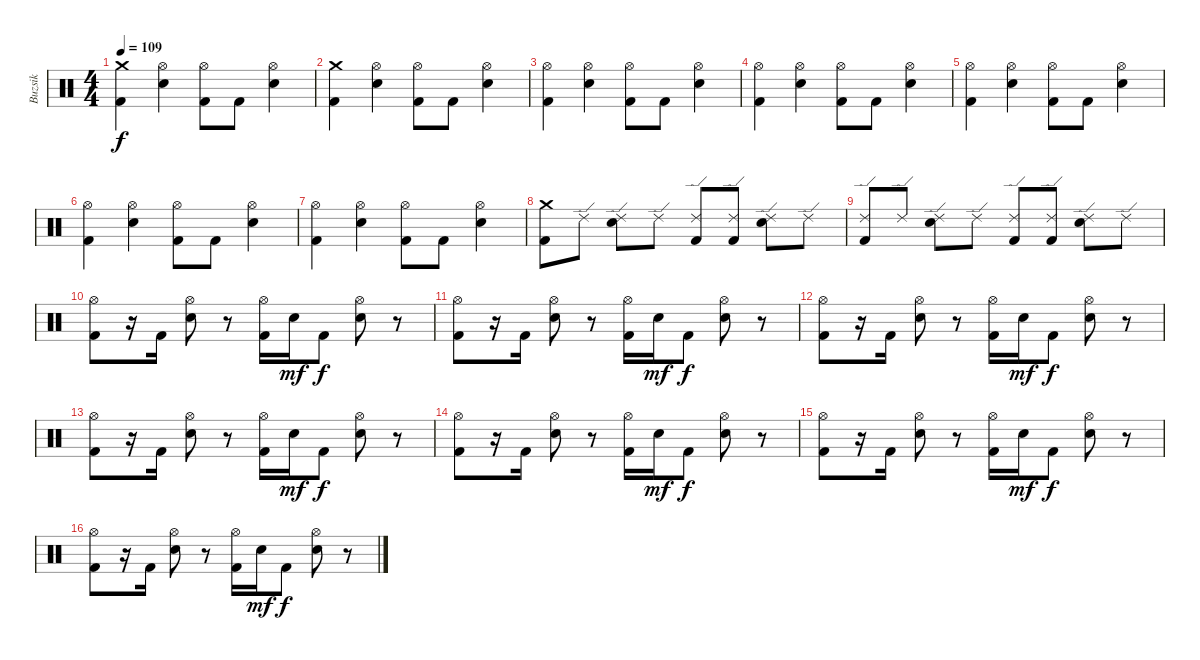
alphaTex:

\track ("Buzsik" "Buzsik") {instrument percussion}
\staff {score}
\articulation defaults
\ts (4 4)
\tempo 109
\clef neutral
\ks c
("Crash medium (hit)" "Kick (hit) 2").4{dy f} ("Hi-Hat (open)" "Electric Snare (hit)").4 ("Hi-Hat (open)" "Kick (hit) 2").8 "Kick (hit) 2".8 ("Hi-Hat (open)" "Electric Snare (hit)").4 |
("Crash medium (hit)" "Kick (hit) 2").4 ("Hi-Hat (open)" "Electric Snare (hit)").4 ("Hi-Hat (open)" "Kick (hit) 2").8 "Kick (hit) 2".8 ("Hi-Hat (open)" "Electric Snare (hit)").4 |
("Hi-Hat (open)" "Kick (hit) 2").4 ("Hi-Hat (open)" "Electric Snare (hit)").4 ("Hi-Hat (open)" "Kick (hit) 2").8 "Kick (hit) 2".8 ("Hi-Hat (open)" "Electric Snare (hit)").4 |
("Hi-Hat (open)" "Kick (hit) 2").4 ("Hi-Hat (open)" "Electric Snare (hit)").4 ("Hi-Hat (open)" "Kick (hit) 2").8 "Kick (hit) 2".8 ("Hi-Hat (open)" "Electric Snare (hit)").4 |
("Hi-Hat (open)" "Kick (hit) 2").4 ("Hi-Hat (open)" "Electric Snare (hit)").4 ("Hi-Hat (open)" "Kick (hit) 2").8 "Kick (hit) 2".8 ("Hi-Hat (open)" "Electric Snare (hit)").4 |
("Hi-Hat (open)" "Kick (hit) 2").4 ("Hi-Hat (open)" "Electric Snare (hit)").4 ("Hi-Hat (open)" "Kick (hit) 2").8 "Kick (hit) 2".8 ("Hi-Hat (open)" "Electric Snare (hit)").4 |
("Hi-Hat (open)" "Kick (hit) 2").4 ("Hi-Hat (open)" "Electric Snare (hit)").4 ("Hi-Hat (open)" "Kick (hit) 2").8 "Kick (hit) 2".8 ("Hi-Hat (open)" "Electric Snare (hit)").4 |
("Crash medium (hit)" "Kick (hit) 2").8 "Ride (edge) 2".8 ("Ride (edge) 2" "Electric Snare (hit)").8 "Ride (edge) 2".8 ("Ride (edge) 2" "Kick (hit) 2").8 ("Ride (edge) 2" "Kick (hit) 2").8 ("Ride (edge) 2" "Electric Snare (hit)").8 "Ride (edge) 2".8 |
("Ride (edge) 2" "Kick (hit) 2").8 "Ride (edge) 2".8 ("Ride (edge) 2" "Electric Snare (hit)").8 "Ride (edge) 2".8 ("Ride (edge) 2" "Kick (hit) 2").8 ("Ride (edge) 2" "Kick (hit) 2").8 ("Ride (edge) 2" "Electric Snare (hit)").8 "Ride (edge) 2".8 |
\section ("" "")
("Hi-Hat (open)" "Kick (hit) 2").8 r.16 "Kick (hit) 2".16 ("Hi-Hat (open)" "Electric Snare (hit)").8 r.8 ("Hi-Hat (open)" "Kick (hit) 2").16 "Electric Snare (hit)".16{dy mf} "Kick (hit) 2".8{dy f} ("Hi-Hat (open)" "Electric Snare (hit)").8 r.8 |
("Hi-Hat (open)" "Kick (hit) 2").8 r.16 "Kick (hit) 2".16 ("Hi-Hat (open)" "Electric Snare (hit)").8 r.8 ("Hi-Hat (open)" "Kick (hit) 2").16 "Electric Snare (hit)".16{dy mf} "Kick (hit) 2".8{dy f} ("Hi-Hat (open)" "Electric Snare (hit)").8 r.8 |
("Hi-Hat (open)" "Kick (hit) 2").8 r.16 "Kick (hit) 2".16 ("Hi-Hat (open)" "Electric Snare (hit)").8 r.8 ("Hi-Hat (open)" "Kick (hit) 2").16 "Electric Snare (hit)".16{dy mf} "Kick (hit) 2".8{dy f} ("Hi-Hat (open)" "Electric Snare (hit)").8 r.8 |
("Hi-Hat (open)" "Kick (hit) 2").8 r.16 "Kick (hit) 2".16 ("Hi-Hat (open)" "Electric Snare (hit)").8 r.8 ("Hi-Hat (open)" "Kick (hit) 2").16 "Electric Snare (hit)".16{dy mf} "Kick (hit) 2".8{dy f} ("Hi-Hat (open)" "Electric Snare (hit)").8 r.8 |
("Hi-Hat (open)" "Kick (hit) 2").8 r.16 "Kick (hit) 2".16 ("Hi-Hat (open)" "Electric Snare (hit)").8 r.8 ("Hi-Hat (open)" "Kick (hit) 2").16 "Electric Snare (hit)".16{dy mf} "Kick (hit) 2".8{dy f} ("Hi-Hat (open)" "Electric Snare (hit)").8 r.8 |
("Hi-Hat (open)" "Kick (hit) 2").8 r.16 "Kick (hit) 2".16 ("Hi-Hat (open)" "Electric Snare (hit)").8 r.8 ("Hi-Hat (open)" "Kick (hit) 2").16 "Electric Snare (hit)".16{dy mf} "Kick (hit) 2".8{dy f} ("Hi-Hat (open)" "Electric Snare (hit)").8 r.8 |
("Hi-Hat (open)" "Kick (hit) 2").8 r.16 "Kick (hit) 2".16 ("Hi-Hat (open)" "Electric Snare (hit)").8 r.8 ("Hi-Hat (open)" "Kick (hit) 2").16 "Electric Snare (hit)".16{dy mf} "Kick (hit) 2".8{dy f} ("Hi-Hat (open)" "Electric Snare (hit)").8 r.8
